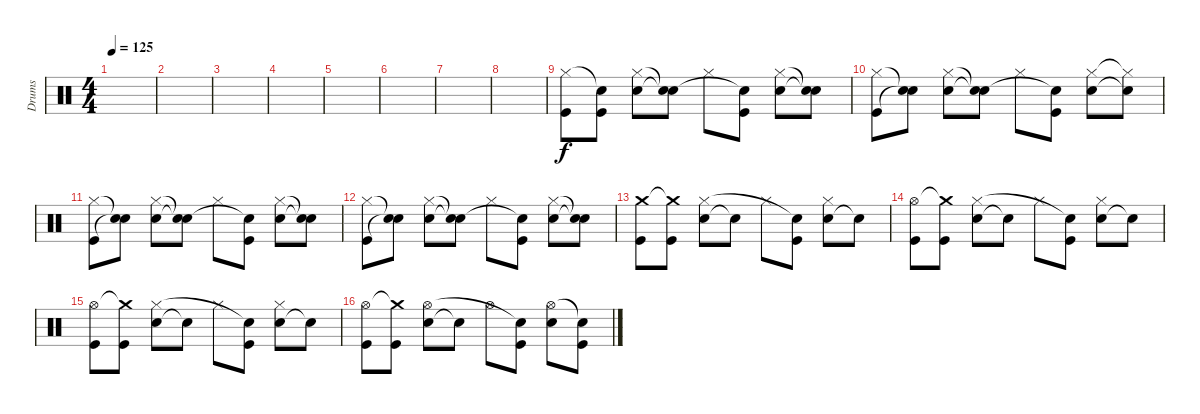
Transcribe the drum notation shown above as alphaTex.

\track ("Drums" "Drums") {instrument percussion}
\staff {score}
\articulation defaults
\ts (4 4)
\tempo 125
\clef neutral
\ks c
|
|
|
|
|
|
|
|
("Kick (hit)" "Hi-Hat (closed)").8 ("Kick (hit)" "Snare (hit)"{t}).8 ("Snare (hit) 2" "Hi-Hat (closed)").8 ("Snare (hit)"{t} "Snare (hit)"{t}).8 "Hi-Hat (closed)".8 ("Kick (hit)" "Snare (hit)"{t}).8 ("Snare (hit) 2" "Hi-Hat (closed)").8 ("Snare (hit)"{t} "Snare (hit)"{t}).8 |
("Kick (hit)" "Hi-Hat (closed)").8 ("Snare (hit)"{t} "Snare (hit)"{t}).8 ("Snare (hit) 2" "Hi-Hat (closed)").8 ("Snare (hit)"{t} "Snare (hit)"{t}).8 "Hi-Hat (closed)".8 ("Kick (hit)" "Snare (hit)"{t}).8 ("Snare (hit) 2" "Hi-Hat (closed)").8 ("Snare (hit)"{t} "Hi-Hat (closed)"{t}).8 |
("Kick (hit)" "Hi-Hat (closed)").8 ("Snare (hit)"{t} "Snare (hit)"{t}).8 ("Snare (hit) 2" "Hi-Hat (closed)").8 ("Snare (hit)"{t} "Snare (hit)"{t}).8 "Hi-Hat (closed)".8 ("Kick (hit)" "Snare (hit)"{t}).8 ("Snare (hit) 2" "Hi-Hat (closed)").8 ("Snare (hit)"{t} "Snare (hit)"{t}).8 |
("Kick (hit)" "Hi-Hat (closed)").8 ("Snare (hit)"{t} "Snare (hit)"{t}).8 ("Snare (hit) 2" "Hi-Hat (closed)").8 ("Snare (hit)"{t} "Snare (hit)"{t}).8 "Hi-Hat (closed)".8 ("Kick (hit)" "Snare (hit)"{t}).8 ("Snare (hit) 2" "Hi-Hat (closed)").8 ("Snare (hit)"{t} "Snare (hit)"{t}).8 |
("Kick (hit)" "Crash medium (hit)").8 ("Kick (hit)" "Crash medium (hit)"{t}).8 ("Snare (hit) 2" "Hi-Hat (closed)").8 "Snare (hit)"{t}.8 "Hi-Hat (closed)".8 ("Kick (hit)" "Snare (hit)"{t}).8 ("Snare (hit) 2" "Hi-Hat (closed)").8 "Snare (hit)"{t}.8 |
("Kick (hit)" "Hi-Hat (open)").8 ("Kick (hit)" "Crash medium (hit)"{t}).8 ("Snare (hit) 2" "Hi-Hat (closed)").8 "Snare (hit)"{t}.8 "Hi-Hat (closed)".8 ("Kick (hit)" "Snare (hit)"{t}).8 ("Snare (hit) 2" "Hi-Hat (closed)").8 "Snare (hit)"{t}.8 |
("Kick (hit)" "Hi-Hat (open)").8 ("Kick (hit)" "Crash medium (hit)"{t}).8 ("Snare (hit) 2" "Hi-Hat (closed)").8 "Snare (hit)"{t}.8 "Hi-Hat (closed)".8 ("Kick (hit)" "Snare (hit)"{t}).8 ("Snare (hit) 2" "Hi-Hat (closed)").8 "Snare (hit)"{t}.8 |
("Kick (hit)" "Hi-Hat (open)").8 ("Kick (hit)" "Crash medium (hit)"{t}).8 ("Snare (hit) 2" "Hi-Hat (open)").8 "Snare (hit)"{t}.8 "Hi-Hat (open)".8 ("Kick (hit)" "Snare (hit)"{t}).8 ("Snare (hit) 2" "Hi-Hat (open)").8 ("Kick (hit)" "Snare (hit)"{t}).8
